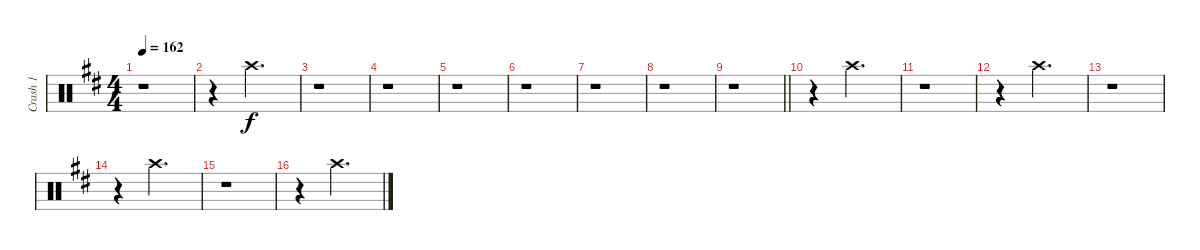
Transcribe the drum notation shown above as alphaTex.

\track ("Crash 1" "Crash 1") {instrument percussion}
\staff {score}
\articulation defaults
\ts (4 4)
\tempo 162
\clef neutral
\ks bminor
r.1{dy f} |
r.4 "Crash high (hit)".2{d} |
r.1 |
r.1 |
r.1 |
r.1 |
r.1 |
r.1 |
\barLineRight lightlight
r.1 |
r.4 "Crash high (hit)".2{d} |
r.1 |
r.4 "Crash high (hit)".2{d} |
r.1 |
r.4 "Crash high (hit)".2{d} |
r.1 |
r.4 "Crash high (hit)".2{d}
